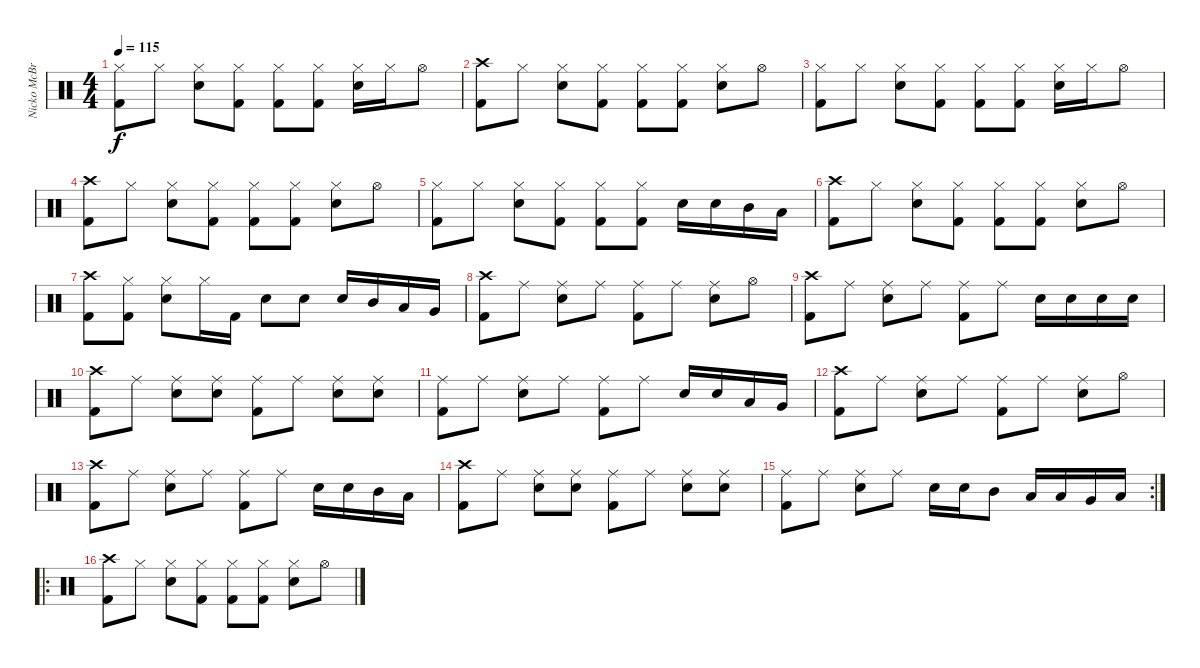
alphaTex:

\track ("Nicko McBrain" "Nicko McBr") {instrument percussion}
\staff {score}
\articulation defaults
\ts (4 4)
\tempo 115
\clef neutral
\ks c
("Hi-Hat (closed)" "Kick (hit) 2").8{dy f} "Hi-Hat (closed)".8 ("Hi-Hat (closed)" "Electric Snare (hit)").8 ("Hi-Hat (closed)" "Kick (hit) 2").8 ("Hi-Hat (closed)" "Kick (hit) 2").8 ("Hi-Hat (closed)" "Kick (hit) 2").8 ("Hi-Hat (closed)" "Electric Snare (hit)").16 "Hi-Hat (closed)".16 "Hi-Hat (open)".8 |
("Crash high (hit)" "Kick (hit) 2").8 "Hi-Hat (closed)".8 ("Hi-Hat (closed)" "Electric Snare (hit)").8 ("Hi-Hat (closed)" "Kick (hit) 2").8 ("Hi-Hat (closed)" "Kick (hit) 2").8 ("Hi-Hat (closed)" "Kick (hit) 2").8 ("Hi-Hat (closed)" "Electric Snare (hit)").8 "Hi-Hat (open)".8 |
("Hi-Hat (closed)" "Kick (hit) 2").8 "Hi-Hat (closed)".8 ("Hi-Hat (closed)" "Electric Snare (hit)").8 ("Hi-Hat (closed)" "Kick (hit) 2").8 ("Hi-Hat (closed)" "Kick (hit) 2").8 ("Hi-Hat (closed)" "Kick (hit) 2").8 ("Hi-Hat (closed)" "Electric Snare (hit)").16 "Hi-Hat (closed)".16 "Hi-Hat (open)".8 |
("Crash high (hit)" "Kick (hit) 2").8 "Hi-Hat (closed)".8 ("Hi-Hat (closed)" "Electric Snare (hit)").8 ("Hi-Hat (closed)" "Kick (hit) 2").8 ("Hi-Hat (closed)" "Kick (hit) 2").8 ("Hi-Hat (closed)" "Kick (hit) 2").8 ("Hi-Hat (closed)" "Electric Snare (hit)").8 "Hi-Hat (open)".8 |
("Hi-Hat (closed)" "Kick (hit) 2").8 "Hi-Hat (closed)".8 ("Hi-Hat (closed)" "Electric Snare (hit)").8 ("Hi-Hat (closed)" "Kick (hit) 2").8 ("Hi-Hat (closed)" "Kick (hit) 2").8 ("Hi-Hat (closed)" "Kick (hit) 2").8 "Electric Snare (hit)".16 "Electric Snare (hit)".16 "Mid Tom (hit)".16 "Low Tom (hit)".16 |
("Crash high (hit)" "Kick (hit) 2").8 "Hi-Hat (closed)".8 ("Hi-Hat (closed)" "Electric Snare (hit)").8 ("Hi-Hat (closed)" "Kick (hit) 2").8 ("Hi-Hat (closed)" "Kick (hit) 2").8 ("Hi-Hat (closed)" "Kick (hit) 2").8 ("Hi-Hat (closed)" "Electric Snare (hit)").8 "Hi-Hat (open)".8 |
("Crash high (hit)" "Kick (hit) 2").8 ("Hi-Hat (closed)" "Kick (hit) 2").8 ("Hi-Hat (closed)" "Electric Snare (hit)").8 "Hi-Hat (closed)".16 "Kick (hit) 2".16 "Electric Snare (hit)".8 "Electric Snare (hit)".8 "Electric Snare (hit)".16 "Mid Tom (hit)".16 "Low Tom (hit)".16 "Very Low Tom (hit)".16 |
("Crash high (hit)" "Kick (hit) 2").8 "Ride (middle)".8 ("Ride (middle)" "Electric Snare (hit)").8 "Ride (middle)".8 ("Ride (middle)" "Kick (hit) 2").8 "Ride (middle)".8 ("Ride (middle)" "Electric Snare (hit)").8 "Hi-Hat (open)".8 |
("Crash high (hit)" "Kick (hit) 2").8 "Ride (middle)".8 ("Ride (middle)" "Electric Snare (hit)").8 "Ride (middle)".8 ("Ride (middle)" "Kick (hit) 2").8 "Ride (middle)".8 "Electric Snare (hit)".16 "Electric Snare (hit)".16 "Electric Snare (hit)".16 "Electric Snare (hit)".16 |
("Crash high (hit)" "Kick (hit) 2").8 "Ride (middle)".8 ("Ride (middle)" "Electric Snare (hit)").8 ("Ride (middle)" "Electric Snare (hit)").8 ("Ride (middle)" "Kick (hit) 2").8 "Ride (middle)".8 ("Ride (middle)" "Electric Snare (hit)").8 ("Ride (middle)" "Electric Snare (hit)").8 |
("Ride (middle)" "Kick (hit) 2").8 "Ride (middle)".8 ("Ride (middle)" "Electric Snare (hit)").8 "Ride (middle)".8 ("Ride (middle)" "Kick (hit) 2").8 "Ride (middle)".8 "Electric Snare (hit)".16 "Electric Snare (hit)".16 "Low Tom (hit)".16 "Very Low Tom (hit)".16 |
("Crash high (hit)" "Kick (hit) 2").8 "Ride (middle)".8 ("Ride (middle)" "Electric Snare (hit)").8 "Ride (middle)".8 ("Ride (middle)" "Kick (hit) 2").8 "Ride (middle)".8 ("Ride (middle)" "Electric Snare (hit)").8 "Hi-Hat (open)".8 |
("Crash high (hit)" "Kick (hit) 2").8 "Ride (middle)".8 ("Ride (middle)" "Electric Snare (hit)").8 "Ride (middle)".8 ("Ride (middle)" "Kick (hit) 2").8 "Ride (middle)".8 "Electric Snare (hit)".16 "Electric Snare (hit)".16 "Mid Tom (hit)".16 "Low Tom (hit)".16 |
("Crash high (hit)" "Kick (hit) 2").8 "Ride (middle)".8 ("Ride (middle)" "Electric Snare (hit)").8 ("Ride (middle)" "Electric Snare (hit)").8 ("Ride (middle)" "Kick (hit) 2").8 "Ride (middle)".8 ("Ride (middle)" "Electric Snare (hit)").8 ("Ride (middle)" "Electric Snare (hit)").8 |
\rc 2
("Ride (middle)" "Kick (hit) 2").8 "Ride (middle)".8 ("Ride (middle)" "Electric Snare (hit)").8 "Ride (middle)".8 "Electric Snare (hit)".16 "Electric Snare (hit)".16 "Mid Tom (hit)".8 "Low Tom (hit)".16 "Low Tom (hit)".16 "Very Low Tom (hit)".16 "Low Floor Tom (hit)".16 |
\ro
("Crash high (hit)" "Kick (hit) 2").8 "Hi-Hat (closed)".8 ("Hi-Hat (closed)" "Electric Snare (hit)").8 ("Hi-Hat (closed)" "Kick (hit) 2").8 ("Hi-Hat (closed)" "Kick (hit) 2").8 ("Hi-Hat (closed)" "Kick (hit) 2").8 ("Hi-Hat (closed)" "Electric Snare (hit)").8 "Hi-Hat (open)".8
